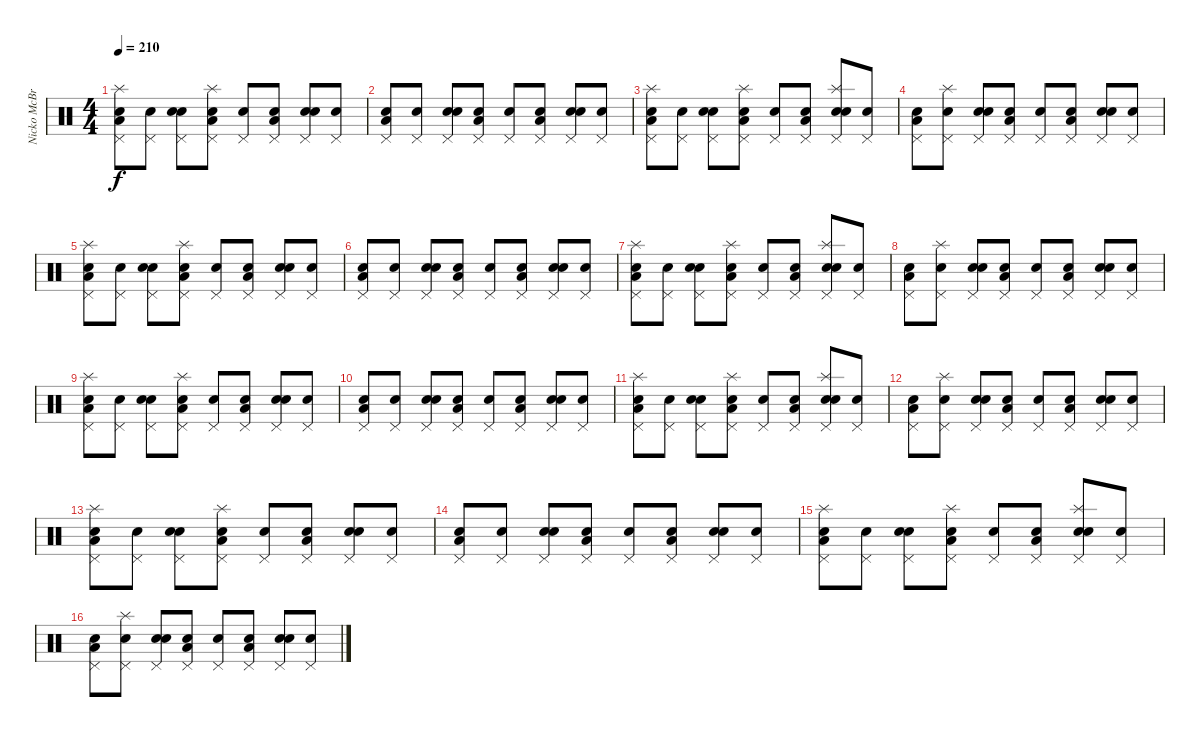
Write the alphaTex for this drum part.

\track ("Nicko McBrain" "Nicko McBr") {instrument percussion}
\staff {score}
\articulation defaults
\ts (4 4)
\tempo 210
\clef neutral
\ks c
("Snare (hit)" "Low Floor Tom (hit)" "Pedal Hi-Hat (hit)" "Splash (hit)").8{dy f} ("Snare (hit)" "Pedal Hi-Hat (hit)").8 ("Snare (hit)" "Electric Snare (hit)" "Pedal Hi-Hat (hit)").8 ("Snare (hit)" "Low Floor Tom (hit)" "Pedal Hi-Hat (hit)" "Splash (hit)").8 ("Snare (hit)" "Pedal Hi-Hat (hit)").8 ("Snare (hit)" "Low Floor Tom (hit)" "Pedal Hi-Hat (hit)").8 ("Snare (hit)" "Electric Snare (hit)" "Pedal Hi-Hat (hit)").8 ("Snare (hit)" "Pedal Hi-Hat (hit)").8 |
("Snare (hit)" "Low Floor Tom (hit)" "Pedal Hi-Hat (hit)").8 ("Snare (hit)" "Pedal Hi-Hat (hit)").8 ("Snare (hit)" "Electric Snare (hit)" "Pedal Hi-Hat (hit)").8 ("Snare (hit)" "Low Floor Tom (hit)" "Pedal Hi-Hat (hit)").8 ("Snare (hit)" "Pedal Hi-Hat (hit)").8 ("Snare (hit)" "Low Floor Tom (hit)" "Pedal Hi-Hat (hit)").8 ("Snare (hit)" "Electric Snare (hit)" "Pedal Hi-Hat (hit)").8 ("Snare (hit)" "Pedal Hi-Hat (hit)").8 |
("Snare (hit)" "Low Floor Tom (hit)" "Pedal Hi-Hat (hit)" "Splash (hit)").8 ("Snare (hit)" "Pedal Hi-Hat (hit)").8 ("Snare (hit)" "Electric Snare (hit)" "Pedal Hi-Hat (hit)").8 ("Snare (hit)" "Low Floor Tom (hit)" "Pedal Hi-Hat (hit)" "Splash (hit)").8 ("Snare (hit)" "Pedal Hi-Hat (hit)").8 ("Snare (hit)" "Low Floor Tom (hit)" "Pedal Hi-Hat (hit)").8 ("Snare (hit)" "Electric Snare (hit)" "Pedal Hi-Hat (hit)" "Splash (hit)").8 ("Snare (hit)" "Pedal Hi-Hat (hit)").8 |
("Snare (hit)" "Low Floor Tom (hit)" "Pedal Hi-Hat (hit)").8 ("Snare (hit)" "Pedal Hi-Hat (hit)" "Splash (hit)").8 ("Snare (hit)" "Electric Snare (hit)" "Pedal Hi-Hat (hit)").8 ("Snare (hit)" "Low Floor Tom (hit)" "Pedal Hi-Hat (hit)").8 ("Snare (hit)" "Pedal Hi-Hat (hit)").8 ("Snare (hit)" "Low Floor Tom (hit)" "Pedal Hi-Hat (hit)").8 ("Snare (hit)" "Electric Snare (hit)" "Pedal Hi-Hat (hit)").8 ("Snare (hit)" "Pedal Hi-Hat (hit)").8 |
("Snare (hit)" "Low Floor Tom (hit)" "Pedal Hi-Hat (hit)" "Splash (hit)").8 ("Snare (hit)" "Pedal Hi-Hat (hit)").8 ("Snare (hit)" "Electric Snare (hit)" "Pedal Hi-Hat (hit)").8 ("Snare (hit)" "Low Floor Tom (hit)" "Pedal Hi-Hat (hit)" "Splash (hit)").8 ("Snare (hit)" "Pedal Hi-Hat (hit)").8 ("Snare (hit)" "Low Floor Tom (hit)" "Pedal Hi-Hat (hit)").8 ("Snare (hit)" "Electric Snare (hit)" "Pedal Hi-Hat (hit)").8 ("Snare (hit)" "Pedal Hi-Hat (hit)").8 |
("Snare (hit)" "Low Floor Tom (hit)" "Pedal Hi-Hat (hit)").8 ("Snare (hit)" "Pedal Hi-Hat (hit)").8 ("Snare (hit)" "Electric Snare (hit)" "Pedal Hi-Hat (hit)").8 ("Snare (hit)" "Low Floor Tom (hit)" "Pedal Hi-Hat (hit)").8 ("Snare (hit)" "Pedal Hi-Hat (hit)").8 ("Snare (hit)" "Low Floor Tom (hit)" "Pedal Hi-Hat (hit)").8 ("Snare (hit)" "Electric Snare (hit)" "Pedal Hi-Hat (hit)").8 ("Snare (hit)" "Pedal Hi-Hat (hit)").8 |
("Snare (hit)" "Low Floor Tom (hit)" "Pedal Hi-Hat (hit)" "Splash (hit)").8 ("Snare (hit)" "Pedal Hi-Hat (hit)").8 ("Snare (hit)" "Electric Snare (hit)" "Pedal Hi-Hat (hit)").8 ("Snare (hit)" "Low Floor Tom (hit)" "Pedal Hi-Hat (hit)" "Splash (hit)").8 ("Snare (hit)" "Pedal Hi-Hat (hit)").8 ("Snare (hit)" "Low Floor Tom (hit)" "Pedal Hi-Hat (hit)").8 ("Snare (hit)" "Electric Snare (hit)" "Pedal Hi-Hat (hit)" "Splash (hit)").8 ("Snare (hit)" "Pedal Hi-Hat (hit)").8 |
("Snare (hit)" "Low Floor Tom (hit)" "Pedal Hi-Hat (hit)").8 ("Snare (hit)" "Pedal Hi-Hat (hit)" "Splash (hit)").8 ("Snare (hit)" "Electric Snare (hit)" "Pedal Hi-Hat (hit)").8 ("Snare (hit)" "Low Floor Tom (hit)" "Pedal Hi-Hat (hit)").8 ("Snare (hit)" "Pedal Hi-Hat (hit)").8 ("Snare (hit)" "Low Floor Tom (hit)" "Pedal Hi-Hat (hit)").8 ("Snare (hit)" "Electric Snare (hit)" "Pedal Hi-Hat (hit)").8 ("Snare (hit)" "Pedal Hi-Hat (hit)").8 |
("Snare (hit)" "Low Floor Tom (hit)" "Pedal Hi-Hat (hit)" "Splash (hit)").8 ("Snare (hit)" "Pedal Hi-Hat (hit)").8 ("Snare (hit)" "Electric Snare (hit)" "Pedal Hi-Hat (hit)").8 ("Snare (hit)" "Low Floor Tom (hit)" "Pedal Hi-Hat (hit)" "Splash (hit)").8 ("Snare (hit)" "Pedal Hi-Hat (hit)").8 ("Snare (hit)" "Low Floor Tom (hit)" "Pedal Hi-Hat (hit)").8 ("Snare (hit)" "Electric Snare (hit)" "Pedal Hi-Hat (hit)").8 ("Snare (hit)" "Pedal Hi-Hat (hit)").8 |
("Snare (hit)" "Low Floor Tom (hit)" "Pedal Hi-Hat (hit)").8 ("Snare (hit)" "Pedal Hi-Hat (hit)").8 ("Snare (hit)" "Electric Snare (hit)" "Pedal Hi-Hat (hit)").8 ("Snare (hit)" "Low Floor Tom (hit)" "Pedal Hi-Hat (hit)").8 ("Snare (hit)" "Pedal Hi-Hat (hit)").8 ("Snare (hit)" "Low Floor Tom (hit)" "Pedal Hi-Hat (hit)").8 ("Snare (hit)" "Electric Snare (hit)" "Pedal Hi-Hat (hit)").8 ("Snare (hit)" "Pedal Hi-Hat (hit)").8 |
("Snare (hit)" "Low Floor Tom (hit)" "Pedal Hi-Hat (hit)" "Splash (hit)").8 ("Snare (hit)" "Pedal Hi-Hat (hit)").8 ("Snare (hit)" "Electric Snare (hit)" "Pedal Hi-Hat (hit)").8 ("Snare (hit)" "Low Floor Tom (hit)" "Pedal Hi-Hat (hit)" "Splash (hit)").8 ("Snare (hit)" "Pedal Hi-Hat (hit)").8 ("Snare (hit)" "Low Floor Tom (hit)" "Pedal Hi-Hat (hit)").8 ("Snare (hit)" "Electric Snare (hit)" "Pedal Hi-Hat (hit)" "Splash (hit)").8 ("Snare (hit)" "Pedal Hi-Hat (hit)").8 |
("Snare (hit)" "Low Floor Tom (hit)" "Pedal Hi-Hat (hit)").8 ("Snare (hit)" "Pedal Hi-Hat (hit)" "Splash (hit)").8 ("Snare (hit)" "Electric Snare (hit)" "Pedal Hi-Hat (hit)").8 ("Snare (hit)" "Low Floor Tom (hit)" "Pedal Hi-Hat (hit)").8 ("Snare (hit)" "Pedal Hi-Hat (hit)").8 ("Snare (hit)" "Low Floor Tom (hit)" "Pedal Hi-Hat (hit)").8 ("Snare (hit)" "Electric Snare (hit)" "Pedal Hi-Hat (hit)").8 ("Snare (hit)" "Pedal Hi-Hat (hit)").8 |
("Snare (hit)" "Low Floor Tom (hit)" "Pedal Hi-Hat (hit)" "Splash (hit)").8 ("Snare (hit)" "Pedal Hi-Hat (hit)").8 ("Snare (hit)" "Electric Snare (hit)" "Pedal Hi-Hat (hit)").8 ("Snare (hit)" "Low Floor Tom (hit)" "Pedal Hi-Hat (hit)" "Splash (hit)").8 ("Snare (hit)" "Pedal Hi-Hat (hit)").8 ("Snare (hit)" "Low Floor Tom (hit)" "Pedal Hi-Hat (hit)").8 ("Snare (hit)" "Electric Snare (hit)" "Pedal Hi-Hat (hit)").8 ("Snare (hit)" "Pedal Hi-Hat (hit)").8 |
("Snare (hit)" "Low Floor Tom (hit)" "Pedal Hi-Hat (hit)").8 ("Snare (hit)" "Pedal Hi-Hat (hit)").8 ("Snare (hit)" "Electric Snare (hit)" "Pedal Hi-Hat (hit)").8 ("Snare (hit)" "Low Floor Tom (hit)" "Pedal Hi-Hat (hit)").8 ("Snare (hit)" "Pedal Hi-Hat (hit)").8 ("Snare (hit)" "Low Floor Tom (hit)" "Pedal Hi-Hat (hit)").8 ("Snare (hit)" "Electric Snare (hit)" "Pedal Hi-Hat (hit)").8 ("Snare (hit)" "Pedal Hi-Hat (hit)").8 |
("Snare (hit)" "Low Floor Tom (hit)" "Pedal Hi-Hat (hit)" "Splash (hit)").8 ("Snare (hit)" "Pedal Hi-Hat (hit)").8 ("Snare (hit)" "Electric Snare (hit)" "Pedal Hi-Hat (hit)").8 ("Snare (hit)" "Low Floor Tom (hit)" "Pedal Hi-Hat (hit)" "Splash (hit)").8 ("Snare (hit)" "Pedal Hi-Hat (hit)").8 ("Snare (hit)" "Low Floor Tom (hit)" "Pedal Hi-Hat (hit)").8 ("Snare (hit)" "Electric Snare (hit)" "Pedal Hi-Hat (hit)" "Splash (hit)").8 ("Snare (hit)" "Pedal Hi-Hat (hit)").8 |
("Snare (hit)" "Low Floor Tom (hit)" "Pedal Hi-Hat (hit)").8 ("Snare (hit)" "Pedal Hi-Hat (hit)" "Splash (hit)").8 ("Snare (hit)" "Electric Snare (hit)" "Pedal Hi-Hat (hit)").8 ("Snare (hit)" "Low Floor Tom (hit)" "Pedal Hi-Hat (hit)").8 ("Snare (hit)" "Pedal Hi-Hat (hit)").8 ("Snare (hit)" "Low Floor Tom (hit)" "Pedal Hi-Hat (hit)").8 ("Snare (hit)" "Electric Snare (hit)" "Pedal Hi-Hat (hit)").8 ("Snare (hit)" "Pedal Hi-Hat (hit)").8
